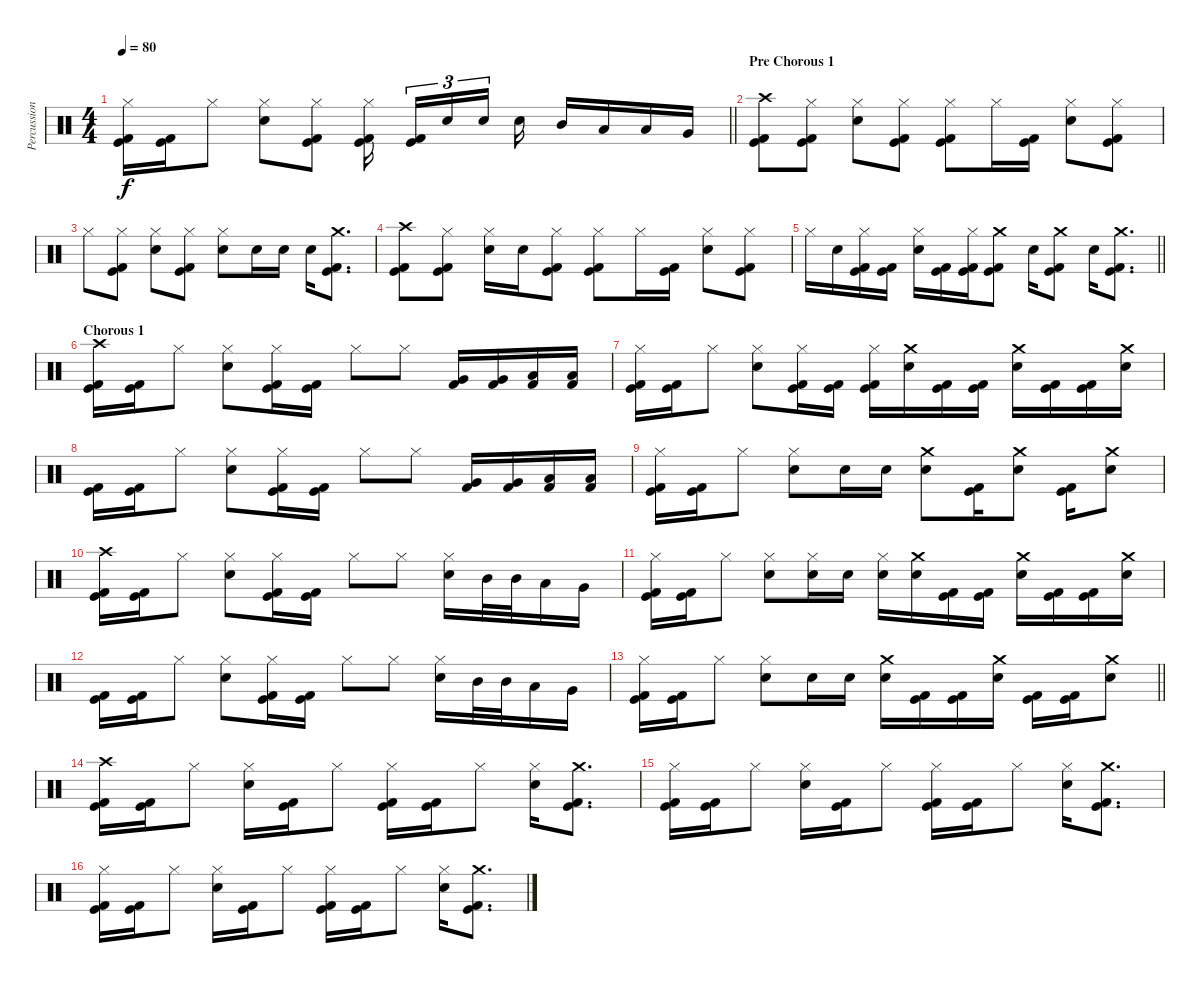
\track ("Percussion" "Percussion") {instrument percussion}
\staff {score}
\articulation defaults
\ts (4 4)
\tempo 80
\clef neutral
\barLineRight lightlight
\ks c
("Hi-Hat (closed)" "Kick (hit)" "Kick (hit) 2").16{dy f} ("Kick (hit)" "Kick (hit) 2").16 "Hi-Hat (closed)".8 ("Hi-Hat (closed)" "Electric Snare (hit)").8 ("Hi-Hat (closed)" "Kick (hit)" "Kick (hit) 2").8 ("Hi-Hat (closed)" "Kick (hit)" "Kick (hit) 2").16{beam splitsecondary} ("Kick (hit)" "Kick (hit) 2").16{tu (3 2)} "Electric Snare (hit)".16{tu (3 2)} "Electric Snare (hit)".16{tu (3 2) beam splitsecondary} "Electric Snare (hit)".16 "Mid Tom (hit)".16 "Low Tom (hit)".16 "Low Tom (hit)".16 "Very Low Tom (hit)".16 |
\section ("" "Pre Chorous 1")
("Crash high (hit)" "Kick (hit)" "Kick (hit) 2").8 ("Hi-Hat (closed)" "Kick (hit)" "Kick (hit) 2").8 ("Hi-Hat (closed)" "Electric Snare (hit)").8 ("Hi-Hat (closed)" "Kick (hit)" "Kick (hit) 2").8 ("Hi-Hat (closed)" "Kick (hit)" "Kick (hit) 2").8 "Hi-Hat (closed)".16 ("Kick (hit)" "Kick (hit) 2").16 ("Hi-Hat (closed)" "Electric Snare (hit)").8 ("Hi-Hat (closed)" "Kick (hit)" "Kick (hit) 2").8 |
"Hi-Hat (closed)".8 ("Hi-Hat (closed)" "Kick (hit)" "Kick (hit) 2").8 ("Hi-Hat (closed)" "Electric Snare (hit)").8 ("Hi-Hat (closed)" "Kick (hit)" "Kick (hit) 2").8 ("Hi-Hat (closed)" "Electric Snare (hit)").8 "Electric Snare (hit)".16 "Electric Snare (hit)".16 "Electric Snare (hit)".16 ("Crash medium (hit)" "Kick (hit)" "Kick (hit) 2").8{d} |
("Crash high (hit)" "Kick (hit)" "Kick (hit) 2").8 ("Hi-Hat (closed)" "Kick (hit)" "Kick (hit) 2").8 ("Hi-Hat (closed)" "Electric Snare (hit)").16 "Electric Snare (hit)".16 ("Hi-Hat (closed)" "Kick (hit)" "Kick (hit) 2").8 ("Hi-Hat (closed)" "Kick (hit)" "Kick (hit) 2").8 "Hi-Hat (closed)".16 ("Kick (hit)" "Kick (hit) 2").16 ("Hi-Hat (closed)" "Electric Snare (hit)").8 ("Hi-Hat (closed)" "Kick (hit)" "Kick (hit) 2").8 |
\barLineRight lightlight "Hi-Hat (closed)".16 "Electric Snare (hit)".16
("Hi-Hat (closed)" "Kick (hit)" "Kick (hit) 2").16 ("Kick (hit)" "Kick (hit) 2").16 ("Hi-Hat (closed)" "Electric Snare (hit)").16 ("Kick (hit)" "Kick (hit) 2").16 ("Hi-Hat (closed)" "Kick (hit)" "Kick (hit) 2").16 ("Crash medium (hit)" "Kick (hit)" "Kick (hit) 2").8 "Electric Snare (hit)".16 ("Crash medium (hit)" "Kick (hit)" "Kick (hit) 2").8 "Electric Snare (hit)".16 ("Crash medium (hit)" "Kick (hit)" "Kick (hit) 2").8{d} |
\section ("" "Chorous 1")
("Crash high (hit)" "Kick (hit)" "Kick (hit) 2").16 ("Kick (hit)" "Kick (hit) 2").16 "Hi-Hat (closed)".8 ("Hi-Hat (closed)" "Electric Snare (hit)").8 ("Hi-Hat (closed)" "Kick (hit)" "Kick (hit) 2").16 ("Kick (hit)" "Kick (hit) 2").16 "Hi-Hat (closed)".8 "Hi-Hat (closed)".8 ("Very Low Tom (hit)" "Kick (hit) 2").16 ("Very Low Tom (hit)" "Kick (hit) 2").16 ("Low Floor Tom (hit)" "Kick (hit) 2").16 ("Low Floor Tom (hit)" "Kick (hit) 2").16 |
("Hi-Hat (closed)" "Kick (hit)" "Kick (hit) 2").16 ("Kick (hit)" "Kick (hit) 2").16 "Hi-Hat (closed)".8 ("Hi-Hat (closed)" "Electric Snare (hit)").8 ("Hi-Hat (closed)" "Kick (hit)" "Kick (hit) 2").16 ("Kick (hit)" "Kick (hit) 2").16 ("Hi-Hat (closed)" "Kick (hit)" "Kick (hit) 2").16 ("Crash medium (hit)" "Electric Snare (hit)").16 ("Kick (hit)" "Kick (hit) 2").16 ("Kick (hit)" "Kick (hit) 2").16 ("Crash medium (hit)" "Electric Snare (hit)").16 ("Kick (hit)" "Kick (hit) 2").16 ("Kick (hit)" "Kick (hit) 2").16 ("Crash medium (hit)" "Electric Snare (hit)").16 |
("Kick (hit)" "Kick (hit) 2").16 ("Kick (hit)" "Kick (hit) 2").16 "Hi-Hat (closed)".8 ("Hi-Hat (closed)" "Electric Snare (hit)").8 ("Hi-Hat (closed)" "Kick (hit)" "Kick (hit) 2").16 ("Kick (hit)" "Kick (hit) 2").16 "Hi-Hat (closed)".8 "Hi-Hat (closed)".8 ("Very Low Tom (hit)" "Kick (hit) 2").16 ("Very Low Tom (hit)" "Kick (hit) 2").16 ("Low Floor Tom (hit)" "Kick (hit) 2").16 ("Low Floor Tom (hit)" "Kick (hit) 2").16 |
("Hi-Hat (closed)" "Kick (hit)" "Kick (hit) 2").16 ("Kick (hit)" "Kick (hit) 2").16 "Hi-Hat (closed)".8 ("Hi-Hat (closed)" "Electric Snare (hit)").8 "Electric Snare (hit)".16 "Electric Snare (hit)".16 ("Crash medium (hit)" "Electric Snare (hit)").8 ("Kick (hit)" "Kick (hit) 2").16 ("Crash medium (hit)" "Electric Snare (hit)").8 ("Kick (hit)" "Kick (hit) 2").16 ("Crash medium (hit)" "Electric Snare (hit)").8 |
("Crash high (hit)" "Kick (hit)" "Kick (hit) 2").16 ("Kick (hit)" "Kick (hit) 2").16 "Hi-Hat (closed)".8 ("Hi-Hat (closed)" "Electric Snare (hit)").8 ("Hi-Hat (closed)" "Kick (hit)" "Kick (hit) 2").16 ("Kick (hit)" "Kick (hit) 2").16 "Hi-Hat (closed)".8 "Hi-Hat (closed)".8 ("Hi-Hat (closed)" "Electric Snare (hit)").16 "Mid Tom (hit)".32 "Mid Tom (hit)".32 "Low Tom (hit)".16 "Very Low Tom (hit)".16 |
("Hi-Hat (closed)" "Kick (hit)" "Kick (hit) 2").16 ("Kick (hit)" "Kick (hit) 2").16 "Hi-Hat (closed)".8 ("Hi-Hat (closed)" "Electric Snare (hit)").8 ("Hi-Hat (closed)" "Electric Snare (hit)").16 "Electric Snare (hit)".16 ("Hi-Hat (closed)" "Electric Snare (hit)").16 ("Crash medium (hit)" "Electric Snare (hit)").16 ("Kick (hit)" "Kick (hit) 2").16 ("Kick (hit)" "Kick (hit) 2").16 ("Crash medium (hit)" "Electric Snare (hit)").16 ("Kick (hit)" "Kick (hit) 2").16 ("Kick (hit)" "Kick (hit) 2").16 ("Crash medium (hit)" "Electric Snare (hit)").16 |
("Kick (hit)" "Kick (hit) 2").16 ("Kick (hit)" "Kick (hit) 2").16 "Hi-Hat (closed)".8 ("Hi-Hat (closed)" "Electric Snare (hit)").8 ("Hi-Hat (closed)" "Kick (hit)" "Kick (hit) 2").16 ("Kick (hit)" "Kick (hit) 2").16 "Hi-Hat (closed)".8 "Hi-Hat (closed)".8 ("Hi-Hat (closed)" "Electric Snare (hit)").16 "Mid Tom (hit)".32 "Mid Tom (hit)".32 "Low Tom (hit)".16 "Very Low Tom (hit)".16 |
\barLineRight lightlight
("Hi-Hat (closed)" "Kick (hit)" "Kick (hit) 2").16 ("Kick (hit)" "Kick (hit) 2").16 "Hi-Hat (closed)".8 ("Hi-Hat (closed)" "Electric Snare (hit)").8 "Electric Snare (hit)".16 "Electric Snare (hit)".16 ("Crash medium (hit)" "Electric Snare (hit)").16 ("Kick (hit)" "Kick (hit) 2").16 ("Kick (hit)" "Kick (hit) 2").16 ("Crash medium (hit)" "Electric Snare (hit)").16 ("Kick (hit)" "Kick (hit) 2").16 ("Kick (hit)" "Kick (hit) 2").16 ("Crash medium (hit)" "Electric Snare (hit)").8 |
\section ("" "")
("Crash high (hit)" "Kick (hit)" "Kick (hit) 2").16 ("Kick (hit)" "Kick (hit) 2").16 "Hi-Hat (closed)".8 ("Hi-Hat (closed)" "Electric Snare (hit)").16 ("Kick (hit)" "Kick (hit) 2").16 "Hi-Hat (closed)".8 ("Hi-Hat (closed)" "Kick (hit)" "Kick (hit) 2").16 ("Kick (hit)" "Kick (hit) 2").16 "Hi-Hat (closed)".8 ("Hi-Hat (closed)" "Electric Snare (hit)").16 ("Crash medium (hit)" "Kick (hit)" "Kick (hit) 2").8{d} |
("Hi-Hat (closed)" "Kick (hit)" "Kick (hit) 2").16 ("Kick (hit)" "Kick (hit) 2").16 "Hi-Hat (closed)".8 ("Hi-Hat (closed)" "Electric Snare (hit)").16 ("Kick (hit)" "Kick (hit) 2").16 "Hi-Hat (closed)".8 ("Hi-Hat (closed)" "Kick (hit)" "Kick (hit) 2").16 ("Kick (hit)" "Kick (hit) 2").16 "Hi-Hat (closed)".8 ("Hi-Hat (closed)" "Electric Snare (hit)").16 ("Crash medium (hit)" "Kick (hit)" "Kick (hit) 2").8{d} |
("Hi-Hat (closed)" "Kick (hit)" "Kick (hit) 2").16 ("Kick (hit)" "Kick (hit) 2").16 "Hi-Hat (closed)".8 ("Hi-Hat (closed)" "Electric Snare (hit)").16 ("Kick (hit)" "Kick (hit) 2").16 "Hi-Hat (closed)".8 ("Hi-Hat (closed)" "Kick (hit)" "Kick (hit) 2").16 ("Kick (hit)" "Kick (hit) 2").16 "Hi-Hat (closed)".8 ("Hi-Hat (closed)" "Electric Snare (hit)").16 ("Crash medium (hit)" "Kick (hit)" "Kick (hit) 2").8{d}
